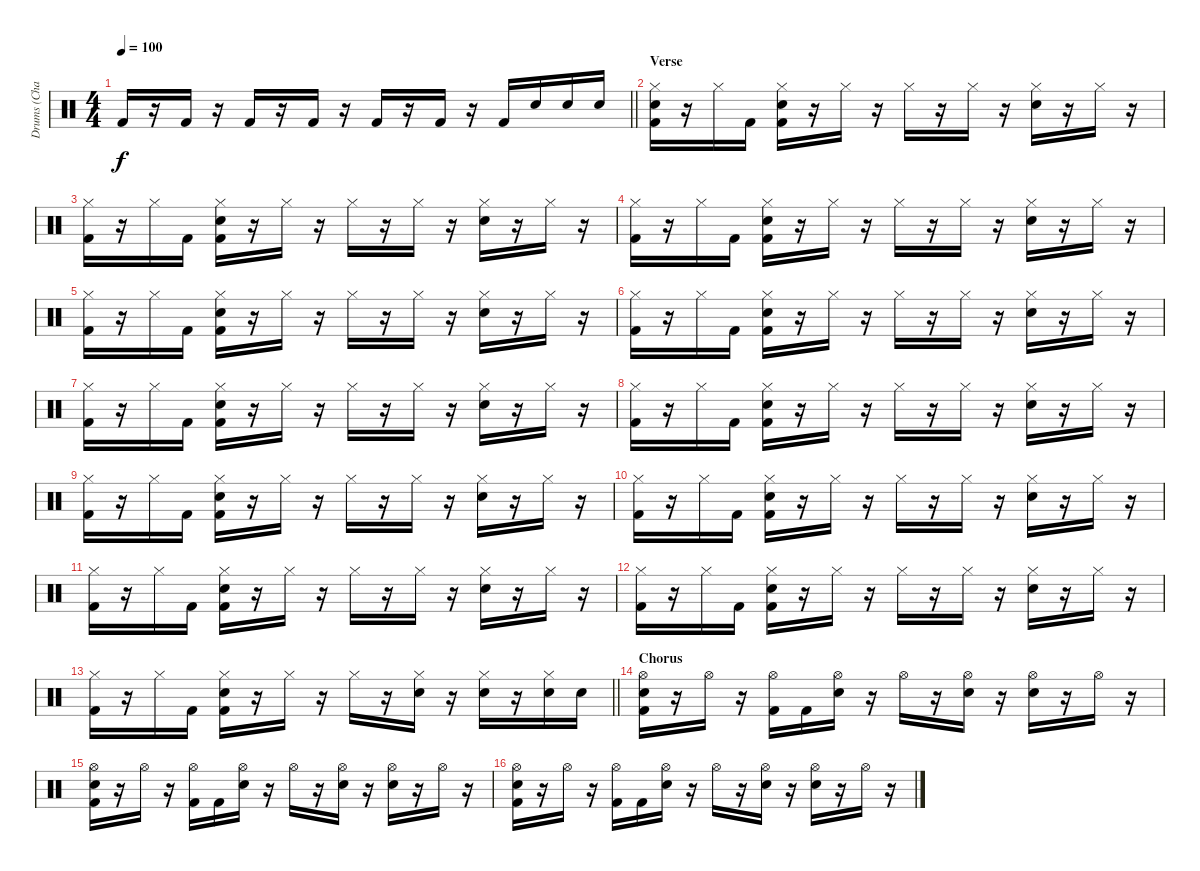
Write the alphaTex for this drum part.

\track ("Drums (Chad Smith)" "Drums (Cha") {instrument percussion}
\staff {score}
\articulation defaults
\ts (4 4)
\tempo 100
\clef neutral
\barLineRight lightlight
\ks c "Kick (hit) 2".16{dy f}
r.16 "Kick (hit) 2".16 r.16 "Kick (hit) 2".16 r.16 "Kick (hit) 2".16 r.16 "Kick (hit) 2".16 r.16 "Kick (hit) 2".16 r.16 "Kick (hit) 2".16 "Electric Snare (hit)".16 "Electric Snare (hit)".16 "Electric Snare (hit)".16 |
\section ("" "Verse")
("Hi-Hat (closed)" "Electric Snare (hit)" "Kick (hit) 2").16 r.16 "Hi-Hat (closed)".16 "Kick (hit) 2".16 ("Hi-Hat (closed)" "Electric Snare (hit)" "Kick (hit) 2").16 r.16 "Hi-Hat (closed)".16 r.16 "Hi-Hat (closed)".16 r.16 "Hi-Hat (closed)".16 r.16 ("Hi-Hat (closed)" "Electric Snare (hit)").16 r.16 "Hi-Hat (closed)".16 r.16 |
("Hi-Hat (closed)" "Kick (hit) 2").16 r.16 "Hi-Hat (closed)".16 "Kick (hit) 2".16 ("Hi-Hat (closed)" "Electric Snare (hit)" "Kick (hit) 2").16 r.16 "Hi-Hat (closed)".16 r.16 "Hi-Hat (closed)".16 r.16 "Hi-Hat (closed)".16 r.16 ("Hi-Hat (closed)" "Electric Snare (hit)").16 r.16 "Hi-Hat (closed)".16 r.16 |
("Hi-Hat (closed)" "Kick (hit) 2").16 r.16 "Hi-Hat (closed)".16 "Kick (hit) 2".16 ("Hi-Hat (closed)" "Electric Snare (hit)" "Kick (hit) 2").16 r.16 "Hi-Hat (closed)".16 r.16 "Hi-Hat (closed)".16 r.16 "Hi-Hat (closed)".16 r.16 ("Hi-Hat (closed)" "Electric Snare (hit)").16 r.16 "Hi-Hat (closed)".16 r.16 |
("Hi-Hat (closed)" "Kick (hit) 2").16 r.16 "Hi-Hat (closed)".16 "Kick (hit) 2".16 ("Hi-Hat (closed)" "Electric Snare (hit)" "Kick (hit) 2").16 r.16 "Hi-Hat (closed)".16 r.16 "Hi-Hat (closed)".16 r.16 "Hi-Hat (closed)".16 r.16 ("Hi-Hat (closed)" "Electric Snare (hit)").16 r.16 "Hi-Hat (closed)".16 r.16 |
("Hi-Hat (closed)" "Kick (hit) 2").16 r.16 "Hi-Hat (closed)".16 "Kick (hit) 2".16 ("Hi-Hat (closed)" "Electric Snare (hit)" "Kick (hit) 2").16 r.16 "Hi-Hat (closed)".16 r.16 "Hi-Hat (closed)".16 r.16 "Hi-Hat (closed)".16 r.16 ("Hi-Hat (closed)" "Electric Snare (hit)").16 r.16 "Hi-Hat (closed)".16 r.16 |
("Hi-Hat (closed)" "Kick (hit) 2").16 r.16 "Hi-Hat (closed)".16 "Kick (hit) 2".16 ("Hi-Hat (closed)" "Electric Snare (hit)" "Kick (hit) 2").16 r.16 "Hi-Hat (closed)".16 r.16 "Hi-Hat (closed)".16 r.16 "Hi-Hat (closed)".16 r.16 ("Hi-Hat (closed)" "Electric Snare (hit)").16 r.16 "Hi-Hat (closed)".16 r.16 |
("Hi-Hat (closed)" "Kick (hit) 2").16 r.16 "Hi-Hat (closed)".16 "Kick (hit) 2".16 ("Hi-Hat (closed)" "Electric Snare (hit)" "Kick (hit) 2").16 r.16 "Hi-Hat (closed)".16 r.16 "Hi-Hat (closed)".16 r.16 "Hi-Hat (closed)".16 r.16 ("Hi-Hat (closed)" "Electric Snare (hit)").16 r.16 "Hi-Hat (closed)".16 r.16 |
("Hi-Hat (closed)" "Kick (hit) 2").16 r.16 "Hi-Hat (closed)".16 "Kick (hit) 2".16 ("Hi-Hat (closed)" "Electric Snare (hit)" "Kick (hit) 2").16 r.16 "Hi-Hat (closed)".16 r.16 "Hi-Hat (closed)".16 r.16 "Hi-Hat (closed)".16 r.16 ("Hi-Hat (closed)" "Electric Snare (hit)").16 r.16 "Hi-Hat (closed)".16 r.16 |
("Hi-Hat (closed)" "Kick (hit) 2").16 r.16 "Hi-Hat (closed)".16 "Kick (hit) 2".16 ("Hi-Hat (closed)" "Electric Snare (hit)" "Kick (hit) 2").16 r.16 "Hi-Hat (closed)".16 r.16 "Hi-Hat (closed)".16 r.16 "Hi-Hat (closed)".16 r.16 ("Hi-Hat (closed)" "Electric Snare (hit)").16 r.16 "Hi-Hat (closed)".16 r.16 |
("Hi-Hat (closed)" "Kick (hit) 2").16 r.16 "Hi-Hat (closed)".16 "Kick (hit) 2".16 ("Hi-Hat (closed)" "Electric Snare (hit)" "Kick (hit) 2").16 r.16 "Hi-Hat (closed)".16 r.16 "Hi-Hat (closed)".16 r.16 "Hi-Hat (closed)".16 r.16 ("Hi-Hat (closed)" "Electric Snare (hit)").16 r.16 "Hi-Hat (closed)".16 r.16 |
("Hi-Hat (closed)" "Kick (hit) 2").16 r.16 "Hi-Hat (closed)".16 "Kick (hit) 2".16 ("Hi-Hat (closed)" "Electric Snare (hit)" "Kick (hit) 2").16 r.16 "Hi-Hat (closed)".16 r.16 "Hi-Hat (closed)".16 r.16 "Hi-Hat (closed)".16 r.16 ("Hi-Hat (closed)" "Electric Snare (hit)").16 r.16 "Hi-Hat (closed)".16 r.16 |
\barLineRight lightlight
("Hi-Hat (closed)" "Kick (hit) 2").16 r.16 "Hi-Hat (closed)".16 "Kick (hit) 2".16 ("Hi-Hat (closed)" "Electric Snare (hit)" "Kick (hit) 2").16 r.16 "Hi-Hat (closed)".16 r.16 "Hi-Hat (closed)".16 r.16 ("Hi-Hat (closed)" "Electric Snare (hit)").16 r.16 ("Hi-Hat (closed)" "Electric Snare (hit)").16 r.16 ("Hi-Hat (closed)" "Electric Snare (hit)").16 "Electric Snare (hit)".16 |
\section ("" "Chorus")
("Hi-Hat (open)" "Electric Snare (hit)" "Kick (hit) 2").16 r.16 "Hi-Hat (open)".16 r.16 ("Hi-Hat (open)" "Kick (hit) 2").16 "Kick (hit) 2".16 ("Hi-Hat (open)" "Electric Snare (hit)").16 r.16 "Hi-Hat (open)".16 r.16 ("Hi-Hat (open)" "Electric Snare (hit)").16 r.16 ("Hi-Hat (open)" "Electric Snare (hit)").16 r.16 "Hi-Hat (open)".16 r.16 |
("Hi-Hat (open)" "Electric Snare (hit)" "Kick (hit) 2").16 r.16 "Hi-Hat (open)".16 r.16 ("Hi-Hat (open)" "Kick (hit) 2").16 "Kick (hit) 2".16 ("Hi-Hat (open)" "Electric Snare (hit)").16 r.16 "Hi-Hat (open)".16 r.16 ("Hi-Hat (open)" "Electric Snare (hit)").16 r.16 ("Hi-Hat (open)" "Electric Snare (hit)").16 r.16 "Hi-Hat (open)".16 r.16 |
("Hi-Hat (open)" "Electric Snare (hit)" "Kick (hit) 2").16 r.16 "Hi-Hat (open)".16 r.16 ("Hi-Hat (open)" "Kick (hit) 2").16 "Kick (hit) 2".16 ("Hi-Hat (open)" "Electric Snare (hit)").16 r.16 "Hi-Hat (open)".16 r.16 ("Hi-Hat (open)" "Electric Snare (hit)").16 r.16 ("Hi-Hat (open)" "Electric Snare (hit)").16 r.16 "Hi-Hat (open)".16 r.16
